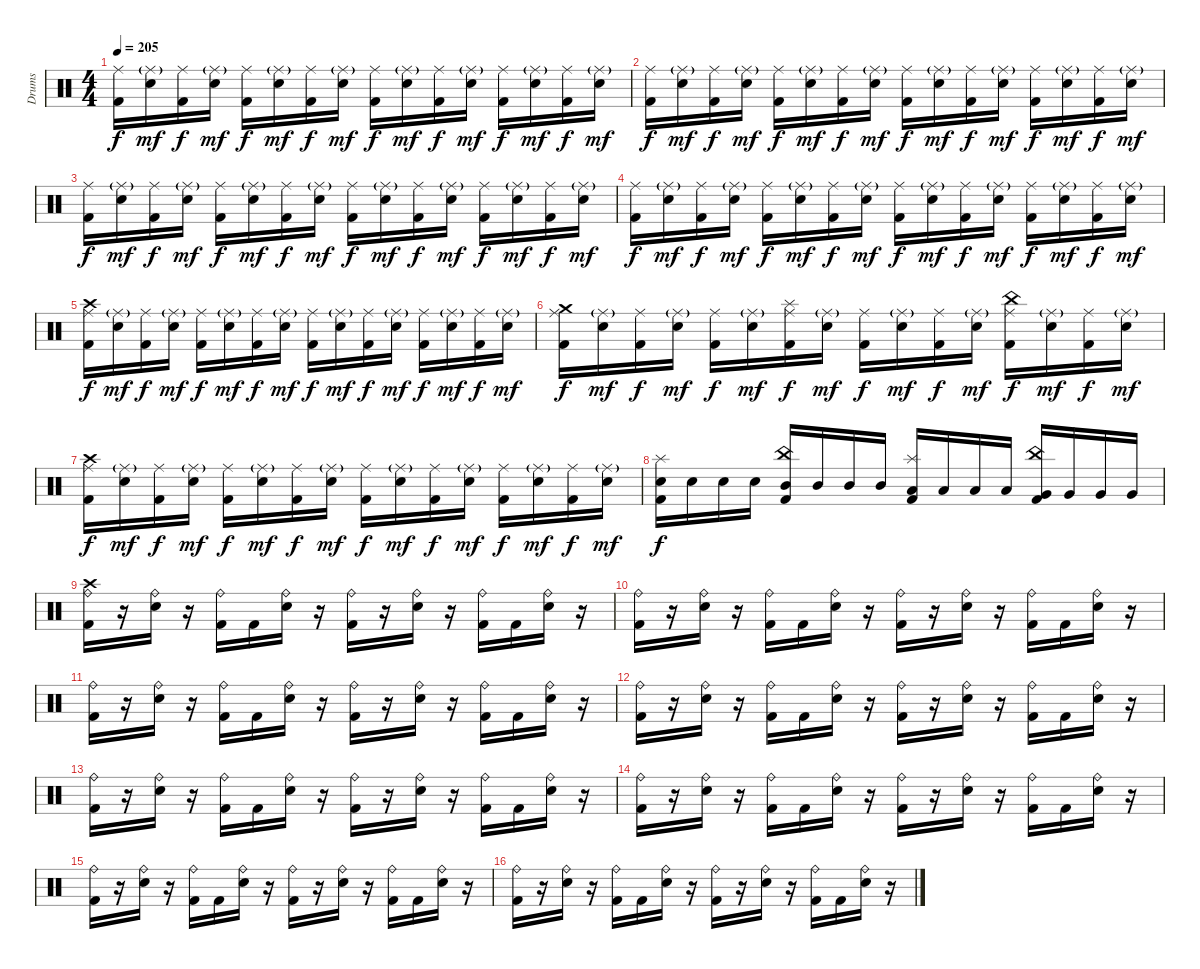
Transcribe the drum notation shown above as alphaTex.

\track ("Drums" "Drums") {instrument percussion}
\staff {score}
\articulation defaults
\ts (4 4)
\tempo 205
\clef neutral
\ks c
("Ride (middle)" "Kick (hit) 2").16{dy f} ("Ride (middle)"{g} "Snare (hit) 2").16{dy mf} ("Ride (middle)" "Kick (hit) 2").16{dy f} ("Ride (middle)"{g} "Snare (hit) 2").16{dy mf} ("Ride (middle)" "Kick (hit) 2").16{dy f} ("Ride (middle)"{g} "Snare (hit) 2").16{dy mf} ("Ride (middle)" "Kick (hit) 2").16{dy f} ("Ride (middle)"{g} "Snare (hit) 2").16{dy mf} ("Ride (middle)" "Kick (hit) 2").16{dy f} ("Ride (middle)"{g} "Snare (hit) 2").16{dy mf} ("Ride (middle)" "Kick (hit) 2").16{dy f} ("Ride (middle)"{g} "Snare (hit) 2").16{dy mf} ("Ride (middle)" "Kick (hit) 2").16{dy f} ("Ride (middle)"{g} "Snare (hit) 2").16{dy mf} ("Ride (middle)" "Kick (hit) 2").16{dy f} ("Ride (middle)"{g} "Snare (hit) 2").16{dy mf} |
("Ride (middle)" "Kick (hit) 2").16{dy f} ("Ride (middle)"{g} "Snare (hit) 2").16{dy mf} ("Ride (middle)" "Kick (hit) 2").16{dy f} ("Ride (middle)"{g} "Snare (hit) 2").16{dy mf} ("Ride (middle)" "Kick (hit) 2").16{dy f} ("Ride (middle)"{g} "Snare (hit) 2").16{dy mf} ("Ride (middle)" "Kick (hit) 2").16{dy f} ("Ride (middle)"{g} "Snare (hit) 2").16{dy mf} ("Ride (middle)" "Kick (hit) 2").16{dy f} ("Ride (middle)"{g} "Snare (hit) 2").16{dy mf} ("Ride (middle)" "Kick (hit) 2").16{dy f} ("Ride (middle)"{g} "Snare (hit) 2").16{dy mf} ("Ride (middle)" "Kick (hit) 2").16{dy f} ("Ride (middle)"{g} "Snare (hit) 2").16{dy mf} ("Ride (middle)" "Kick (hit) 2").16{dy f} ("Ride (middle)"{g} "Snare (hit) 2").16{dy mf} |
("Ride (middle)" "Kick (hit) 2").16{dy f} ("Ride (middle)"{g} "Snare (hit) 2").16{dy mf} ("Ride (middle)" "Kick (hit) 2").16{dy f} ("Ride (middle)"{g} "Snare (hit) 2").16{dy mf} ("Ride (middle)" "Kick (hit) 2").16{dy f} ("Ride (middle)"{g} "Snare (hit) 2").16{dy mf} ("Ride (middle)" "Kick (hit) 2").16{dy f} ("Ride (middle)"{g} "Snare (hit) 2").16{dy mf} ("Ride (middle)" "Kick (hit) 2").16{dy f} ("Ride (middle)"{g} "Snare (hit) 2").16{dy mf} ("Ride (middle)" "Kick (hit) 2").16{dy f} ("Ride (middle)"{g} "Snare (hit) 2").16{dy mf} ("Ride (middle)" "Kick (hit) 2").16{dy f} ("Ride (middle)"{g} "Snare (hit) 2").16{dy mf} ("Ride (middle)" "Kick (hit) 2").16{dy f} ("Ride (middle)"{g} "Snare (hit) 2").16{dy mf} |
("Ride (middle)" "Kick (hit) 2").16{dy f} ("Ride (middle)"{g} "Snare (hit) 2").16{dy mf} ("Ride (middle)" "Kick (hit) 2").16{dy f} ("Ride (middle)"{g} "Snare (hit) 2").16{dy mf} ("Ride (middle)" "Kick (hit) 2").16{dy f} ("Ride (middle)"{g} "Snare (hit) 2").16{dy mf} ("Ride (middle)" "Kick (hit) 2").16{dy f} ("Ride (middle)"{g} "Snare (hit) 2").16{dy mf} ("Ride (middle)" "Kick (hit) 2").16{dy f} ("Ride (middle)"{g} "Snare (hit) 2").16{dy mf} ("Ride (middle)" "Kick (hit) 2").16{dy f} ("Ride (middle)"{g} "Snare (hit) 2").16{dy mf} ("Ride (middle)" "Kick (hit) 2").16{dy f} ("Ride (middle)"{g} "Snare (hit) 2").16{dy mf} ("Ride (middle)" "Kick (hit) 2").16{dy f} ("Ride (middle)"{g} "Snare (hit) 2").16{dy mf} |
("Crash high (hit)" "Ride (middle)" "Kick (hit) 2").16{dy f} ("Ride (middle)"{g} "Snare (hit) 2").16{dy mf} ("Ride (middle)" "Kick (hit) 2").16{dy f} ("Ride (middle)"{g} "Snare (hit) 2").16{dy mf} ("Ride (middle)" "Kick (hit) 2").16{dy f} ("Ride (middle)"{g} "Snare (hit) 2").16{dy mf} ("Ride (middle)" "Kick (hit) 2").16{dy f} ("Ride (middle)"{g} "Snare (hit) 2").16{dy mf} ("Ride (middle)" "Kick (hit) 2").16{dy f} ("Ride (middle)"{g} "Snare (hit) 2").16{dy mf} ("Ride (middle)" "Kick (hit) 2").16{dy f} ("Ride (middle)"{g} "Snare (hit) 2").16{dy mf} ("Ride (middle)" "Kick (hit) 2").16{dy f} ("Ride (middle)"{g} "Snare (hit) 2").16{dy mf} ("Ride (middle)" "Kick (hit) 2").16{dy f} ("Ride (middle)"{g} "Snare (hit) 2").16{dy mf} |
("Crash medium (hit)" "Ride (middle)" "Kick (hit) 2").16{dy f} ("Ride (middle)"{g} "Snare (hit) 2").16{dy mf} ("Ride (middle)" "Kick (hit) 2").16{dy f} ("Ride (middle)"{g} "Snare (hit) 2").16{dy mf} ("Ride (middle)" "Kick (hit) 2").16{dy f} ("Ride (middle)"{g} "Snare (hit) 2").16{dy mf} ("Splash (hit)" "Ride (middle)" "Kick (hit) 2").16{dy f} ("Ride (middle)"{g} "Snare (hit) 2").16{dy mf} ("Ride (middle)" "Kick (hit) 2").16{dy f} ("Ride (middle)"{g} "Snare (hit) 2").16{dy mf} ("Ride (middle)" "Kick (hit) 2").16{dy f} ("Ride (middle)"{g} "Snare (hit) 2").16{dy mf} ("China (hit)" "Ride (middle)" "Kick (hit) 2").16{dy f} ("Ride (middle)"{g} "Snare (hit) 2").16{dy mf} ("Ride (middle)" "Kick (hit) 2").16{dy f} ("Ride (middle)"{g} "Snare (hit) 2").16{dy mf} |
("Crash high (hit)" "Ride (middle)" "Kick (hit) 2").16{dy f} ("Ride (middle)"{g} "Snare (hit) 2").16{dy mf} ("Ride (middle)" "Kick (hit) 2").16{dy f} ("Ride (middle)"{g} "Snare (hit) 2").16{dy mf} ("Ride (middle)" "Kick (hit) 2").16{dy f} ("Ride (middle)"{g} "Snare (hit) 2").16{dy mf} ("Ride (middle)" "Kick (hit) 2").16{dy f} ("Ride (middle)"{g} "Snare (hit) 2").16{dy mf} ("Ride (middle)" "Kick (hit) 2").16{dy f} ("Ride (middle)"{g} "Snare (hit) 2").16{dy mf} ("Ride (middle)" "Kick (hit) 2").16{dy f} ("Ride (middle)"{g} "Snare (hit) 2").16{dy mf} ("Ride (middle)" "Kick (hit) 2").16{dy f} ("Ride (middle)"{g} "Snare (hit) 2").16{dy mf} ("Ride (middle)" "Kick (hit) 2").16{dy f} ("Ride (middle)"{g} "Snare (hit) 2").16{dy mf} |
("Splash (hit)" "Snare (hit) 2" "Kick (hit) 2").16{dy f} "Snare (hit) 2".16 "Snare (hit) 2".16 "Snare (hit) 2".16 ("China (hit)" "Mid Tom (hit)" "Kick (hit) 2").16 "Mid Tom (hit)".16 "Mid Tom (hit)".16 "Mid Tom (hit)".16 ("Splash (hit)" "Low Tom (hit)" "Kick (hit) 2").16 "Low Tom (hit)".16 "Low Tom (hit)".16 "Low Tom (hit)".16 ("China (hit)" "Very Low Tom (hit)" "Kick (hit) 2").16 "Very Low Tom (hit)".16 "Very Low Tom (hit)".16 "Very Low Tom (hit)".16 |
("Crash high (hit)" "Ride (bell)" "Kick (hit) 2").16 r.16 ("Ride (bell)" "Snare (hit) 2").16 r.16 ("Ride (bell)" "Kick (hit) 2").16 "Kick (hit) 2".16 ("Ride (bell)" "Snare (hit) 2").16 r.16 ("Ride (bell)" "Kick (hit) 2").16 r.16 ("Ride (bell)" "Snare (hit) 2").16 r.16 ("Ride (bell)" "Kick (hit) 2").16 "Kick (hit) 2".16 ("Ride (bell)" "Snare (hit) 2").16 r.16 |
("Ride (bell)" "Kick (hit) 2").16 r.16 ("Ride (bell)" "Snare (hit) 2").16 r.16 ("Ride (bell)" "Kick (hit) 2").16 "Kick (hit) 2".16 ("Ride (bell)" "Snare (hit) 2").16 r.16 ("Ride (bell)" "Kick (hit) 2").16 r.16 ("Ride (bell)" "Snare (hit) 2").16 r.16 ("Ride (bell)" "Kick (hit) 2").16 "Kick (hit) 2".16 ("Ride (bell)" "Snare (hit) 2").16 r.16 |
("Ride (bell)" "Kick (hit) 2").16 r.16 ("Ride (bell)" "Snare (hit) 2").16 r.16 ("Ride (bell)" "Kick (hit) 2").16 "Kick (hit) 2".16 ("Ride (bell)" "Snare (hit) 2").16 r.16 ("Ride (bell)" "Kick (hit) 2").16 r.16 ("Ride (bell)" "Snare (hit) 2").16 r.16 ("Ride (bell)" "Kick (hit) 2").16 "Kick (hit) 2".16 ("Ride (bell)" "Snare (hit) 2").16 r.16 |
("Ride (bell)" "Kick (hit) 2").16 r.16 ("Ride (bell)" "Snare (hit) 2").16 r.16 ("Ride (bell)" "Kick (hit) 2").16 "Kick (hit) 2".16 ("Ride (bell)" "Snare (hit) 2").16 r.16 ("Ride (bell)" "Kick (hit) 2").16 r.16 ("Ride (bell)" "Snare (hit) 2").16 r.16 ("Ride (bell)" "Kick (hit) 2").16 "Kick (hit) 2".16 ("Ride (bell)" "Snare (hit) 2").16 r.16 |
("Ride (bell)" "Kick (hit) 2").16 r.16 ("Ride (bell)" "Snare (hit) 2").16 r.16 ("Ride (bell)" "Kick (hit) 2").16 "Kick (hit) 2".16 ("Ride (bell)" "Snare (hit) 2").16 r.16 ("Ride (bell)" "Kick (hit) 2").16 r.16 ("Ride (bell)" "Snare (hit) 2").16 r.16 ("Ride (bell)" "Kick (hit) 2").16 "Kick (hit) 2".16 ("Ride (bell)" "Snare (hit) 2").16 r.16 |
("Ride (bell)" "Kick (hit) 2").16 r.16 ("Ride (bell)" "Snare (hit) 2").16 r.16 ("Ride (bell)" "Kick (hit) 2").16 "Kick (hit) 2".16 ("Ride (bell)" "Snare (hit) 2").16 r.16 ("Ride (bell)" "Kick (hit) 2").16 r.16 ("Ride (bell)" "Snare (hit) 2").16 r.16 ("Ride (bell)" "Kick (hit) 2").16 "Kick (hit) 2".16 ("Ride (bell)" "Snare (hit) 2").16 r.16 |
("Ride (bell)" "Kick (hit) 2").16 r.16 ("Ride (bell)" "Snare (hit) 2").16 r.16 ("Ride (bell)" "Kick (hit) 2").16 "Kick (hit) 2".16 ("Ride (bell)" "Snare (hit) 2").16 r.16 ("Ride (bell)" "Kick (hit) 2").16 r.16 ("Ride (bell)" "Snare (hit) 2").16 r.16 ("Ride (bell)" "Kick (hit) 2").16 "Kick (hit) 2".16 ("Ride (bell)" "Snare (hit) 2").16 r.16 |
("Ride (bell)" "Kick (hit) 2").16 r.16 ("Ride (bell)" "Snare (hit) 2").16 r.16 ("Ride (bell)" "Kick (hit) 2").16 "Kick (hit) 2".16 ("Ride (bell)" "Snare (hit) 2").16 r.16 ("Ride (bell)" "Kick (hit) 2").16 r.16 ("Ride (bell)" "Snare (hit) 2").16 r.16 ("Ride (bell)" "Kick (hit) 2").16 "Kick (hit) 2".16 ("Ride (bell)" "Snare (hit) 2").16 r.16
